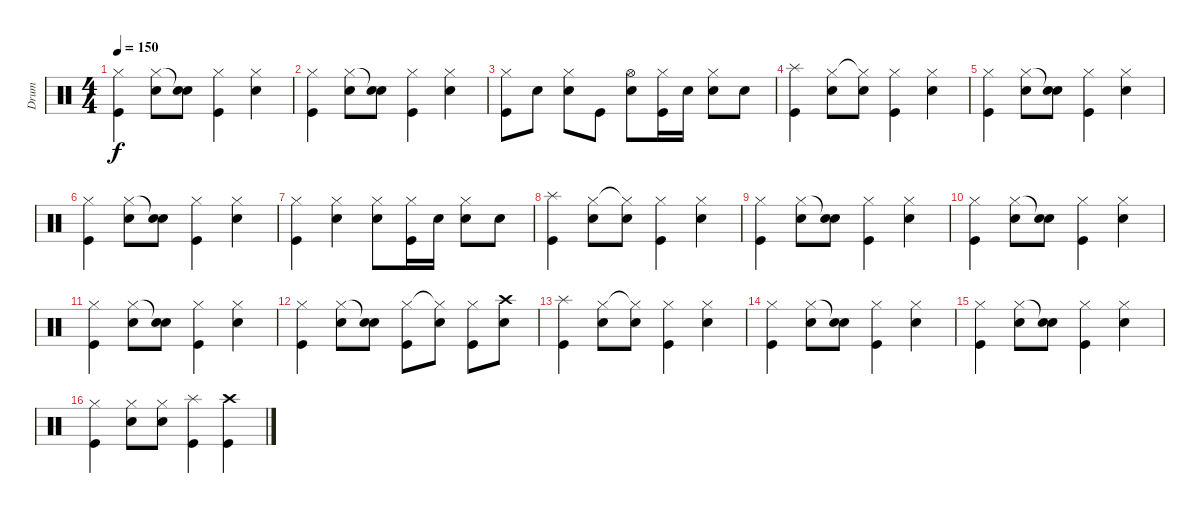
\track ("Drum" "Drum") {instrument percussion}
\staff {score}
\articulation defaults
\ts (4 4)
\tempo 150
\clef neutral
\ks c
("Hi-Hat (closed)" "Kick (hit)").4{dy f} ("Hi-Hat (closed)" "Snare (hit) 2").8 ("Snare (hit)"{t} "Snare (hit) 2").8 ("Hi-Hat (closed)" "Kick (hit)").4 ("Hi-Hat (closed)" "Snare (hit) 2").4 |
("Hi-Hat (closed)" "Kick (hit)").4 ("Hi-Hat (closed)" "Snare (hit) 2").8 ("Snare (hit)"{t} "Snare (hit) 2").8 ("Hi-Hat (closed)" "Kick (hit)").4 ("Hi-Hat (closed)" "Snare (hit) 2").4 |
("Hi-Hat (closed)" "Kick (hit)").8 "Snare (hit) 2".8 ("Hi-Hat (closed)" "Snare (hit) 2").8 "Kick (hit)".8 ("Hi-Hat (open)" "Snare (hit) 2").8 ("Hi-Hat (closed)" "Kick (hit)").16 "Snare (hit) 2".16 ("Hi-Hat (closed)" "Snare (hit) 2").8 "Snare (hit) 2".8 |
("Splash (hit)" "Kick (hit)").4 ("Hi-Hat (closed)" "Snare (hit) 2").8 ("Hi-Hat (closed)"{t} "Snare (hit) 2").8 ("Hi-Hat (closed)" "Kick (hit)").4 ("Hi-Hat (closed)" "Snare (hit) 2").4 |
("Hi-Hat (closed)" "Kick (hit)").4 ("Hi-Hat (closed)" "Snare (hit) 2").8 ("Snare (hit)"{t} "Snare (hit) 2").8 ("Hi-Hat (closed)" "Kick (hit)").4 ("Hi-Hat (closed)" "Snare (hit) 2").4 |
("Hi-Hat (closed)" "Kick (hit)").4 ("Hi-Hat (closed)" "Snare (hit) 2").8 ("Snare (hit)"{t} "Snare (hit) 2").8 ("Hi-Hat (closed)" "Kick (hit)").4 ("Hi-Hat (closed)" "Snare (hit) 2").4 |
("Hi-Hat (closed)" "Kick (hit)").4 ("Hi-Hat (closed)" "Snare (hit) 2").4 ("Hi-Hat (closed)" "Snare (hit) 2").8 ("Hi-Hat (closed)" "Kick (hit)").16 "Snare (hit) 2".16 ("Hi-Hat (closed)" "Snare (hit) 2").8 "Snare (hit) 2".8 |
("Splash (hit)" "Kick (hit)").4 ("Hi-Hat (closed)" "Snare (hit) 2").8 ("Hi-Hat (closed)"{t} "Snare (hit) 2").8 ("Hi-Hat (closed)" "Kick (hit)").4 ("Hi-Hat (closed)" "Snare (hit) 2").4 |
("Hi-Hat (closed)" "Kick (hit)").4 ("Hi-Hat (closed)" "Snare (hit) 2").8 ("Snare (hit)"{t} "Snare (hit) 2").8 ("Hi-Hat (closed)" "Kick (hit)").4 ("Hi-Hat (closed)" "Snare (hit) 2").4 |
("Hi-Hat (closed)" "Kick (hit)").4 ("Hi-Hat (closed)" "Snare (hit) 2").8 ("Snare (hit)"{t} "Snare (hit) 2").8 ("Hi-Hat (closed)" "Kick (hit)").4 ("Hi-Hat (closed)" "Snare (hit) 2").4 |
("Hi-Hat (closed)" "Kick (hit)").4 ("Hi-Hat (closed)" "Snare (hit) 2").8 ("Snare (hit)"{t} "Snare (hit) 2").8 ("Hi-Hat (closed)" "Kick (hit)").4 ("Hi-Hat (closed)" "Snare (hit) 2").4 |
("Hi-Hat (closed)" "Kick (hit)").4 ("Hi-Hat (closed)" "Snare (hit) 2").8 ("Snare (hit)"{t} "Snare (hit) 2").8 ("Hi-Hat (closed)" "Kick (hit)").8 ("Hi-Hat (closed)"{t} "Snare (hit) 2").8 ("Hi-Hat (closed)" "Kick (hit)").8 ("Crash high (hit)" "Snare (hit) 2").8 |
("Splash (hit)" "Kick (hit)").4 ("Hi-Hat (closed)" "Snare (hit) 2").8 ("Hi-Hat (closed)"{t} "Snare (hit) 2").8 ("Hi-Hat (closed)" "Kick (hit)").4 ("Hi-Hat (closed)" "Snare (hit) 2").4 |
("Hi-Hat (closed)" "Kick (hit)").4 ("Hi-Hat (closed)" "Snare (hit) 2").8 ("Snare (hit)"{t} "Snare (hit) 2").8 ("Hi-Hat (closed)" "Kick (hit)").4 ("Hi-Hat (closed)" "Snare (hit) 2").4 |
("Hi-Hat (closed)" "Kick (hit)").4 ("Hi-Hat (closed)" "Snare (hit) 2").8 ("Snare (hit)"{t} "Snare (hit) 2").8 ("Hi-Hat (closed)" "Kick (hit)").4 ("Hi-Hat (closed)" "Snare (hit) 2").4 |
("Hi-Hat (closed)" "Kick (hit)").4 ("Hi-Hat (closed)" "Snare (hit) 2").8 ("Hi-Hat (closed)" "Snare (hit) 2").8 ("Splash (hit)" "Kick (hit)").4 ("Crash high (hit)" "Kick (hit)").4
